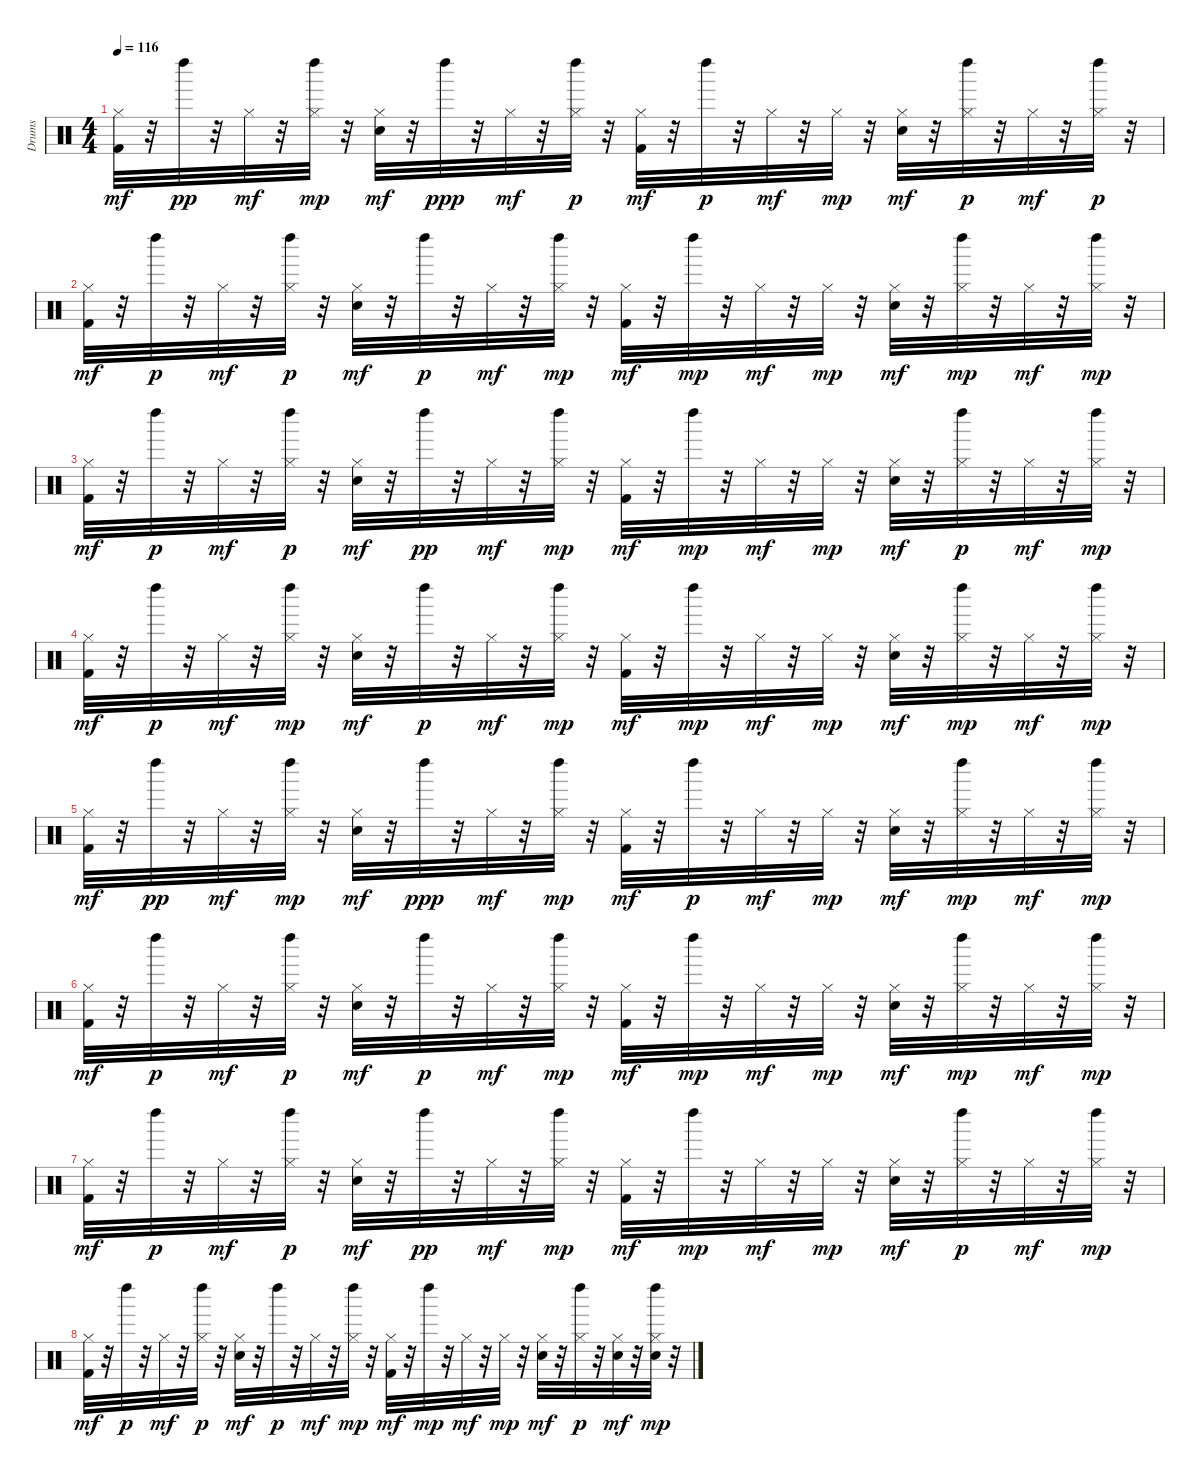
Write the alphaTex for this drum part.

\track ("Drums" "Drums") {instrument percussion}
\staff {score}
\articulation defaults
\ts (4 4)
\tempo 116
\clef neutral
\ks c
("Hi-Hat (closed)" "Kick (hit) 2").32{dy mf} r.32 "Left Maraca (hit)".32{dy pp} r.32 "Hi-Hat (closed)".32{dy mf} r.32 ("Left Maraca (hit)" "Hi-Hat (closed)").32{dy mp} r.32 ("Hi-Hat (closed)" "Snare (hit) 2").32{dy mf} r.32 "Left Maraca (hit)".32{dy ppp} r.32 "Hi-Hat (closed)".32{dy mf} r.32 ("Hi-Hat (closed)" "Left Maraca (hit)").32{dy p} r.32 ("Kick (hit) 2" "Hi-Hat (closed)").32{dy mf} r.32 "Left Maraca (hit)".32{dy p} r.32 "Hi-Hat (closed)".32{dy mf} r.32 "Hi-Hat (closed)".32{dy mp} r.32 ("Snare (hit) 2" "Hi-Hat (closed)").32{dy mf} r.32 ("Hi-Hat (closed)" "Left Maraca (hit)").32{dy p} r.32 "Hi-Hat (closed)".32{dy mf} r.32 ("Hi-Hat (closed)" "Left Maraca (hit)").32{dy p} r.32 |
("Hi-Hat (closed)" "Kick (hit) 2").32{dy mf} r.32 "Left Maraca (hit)".32{dy p} r.32 "Hi-Hat (closed)".32{dy mf} r.32 ("Hi-Hat (closed)" "Left Maraca (hit)").32{dy p} r.32 ("Hi-Hat (closed)" "Snare (hit) 2").32{dy mf} r.32 "Left Maraca (hit)".32{dy p} r.32 "Hi-Hat (closed)".32{dy mf} r.32 ("Left Maraca (hit)" "Hi-Hat (closed)").32{dy mp} r.32 ("Hi-Hat (closed)" "Kick (hit) 2").32{dy mf} r.32 "Left Maraca (hit)".32{dy mp} r.32 "Hi-Hat (closed)".32{dy mf} r.32 "Hi-Hat (closed)".32{dy mp} r.32 ("Hi-Hat (closed)" "Snare (hit) 2").32{dy mf} r.32 ("Left Maraca (hit)" "Hi-Hat (closed)").32{dy mp} r.32 "Hi-Hat (closed)".32{dy mf} r.32 ("Hi-Hat (closed)" "Left Maraca (hit)").32{dy mp} r.32 |
("Kick (hit) 2" "Hi-Hat (closed)").32{dy mf} r.32 "Left Maraca (hit)".32{dy p} r.32 "Hi-Hat (closed)".32{dy mf} r.32 ("Hi-Hat (closed)" "Left Maraca (hit)").32{dy p} r.32 ("Snare (hit) 2" "Hi-Hat (closed)").32{dy mf} r.32 "Left Maraca (hit)".32{dy pp} r.32 "Hi-Hat (closed)".32{dy mf} r.32 ("Left Maraca (hit)" "Hi-Hat (closed)").32{dy mp} r.32 ("Hi-Hat (closed)" "Kick (hit) 2").32{dy mf} r.32 "Left Maraca (hit)".32{dy mp} r.32 "Hi-Hat (closed)".32{dy mf} r.32 "Hi-Hat (closed)".32{dy mp} r.32 ("Hi-Hat (closed)" "Snare (hit) 2").32{dy mf} r.32 ("Hi-Hat (closed)" "Left Maraca (hit)").32{dy p} r.32 "Hi-Hat (closed)".32{dy mf} r.32 ("Left Maraca (hit)" "Hi-Hat (closed)").32{dy mp} r.32 |
("Hi-Hat (closed)" "Kick (hit) 2").32{dy mf} r.32 "Left Maraca (hit)".32{dy p} r.32 "Hi-Hat (closed)".32{dy mf} r.32 ("Left Maraca (hit)" "Hi-Hat (closed)").32{dy mp} r.32 ("Hi-Hat (closed)" "Snare (hit) 2").32{dy mf} r.32 "Left Maraca (hit)".32{dy p} r.32 "Hi-Hat (closed)".32{dy mf} r.32 ("Left Maraca (hit)" "Hi-Hat (closed)").32{dy mp} r.32 ("Hi-Hat (closed)" "Kick (hit) 2").32{dy mf} r.32 "Left Maraca (hit)".32{dy mp} r.32 "Hi-Hat (closed)".32{dy mf} r.32 "Hi-Hat (closed)".32{dy mp} r.32 ("Hi-Hat (closed)" "Snare (hit) 2").32{dy mf} r.32 ("Left Maraca (hit)" "Hi-Hat (closed)").32{dy mp} r.32 "Hi-Hat (closed)".32{dy mf} r.32 ("Hi-Hat (closed)" "Left Maraca (hit)").32{dy mp} r.32 |
("Kick (hit) 2" "Hi-Hat (closed)").32{dy mf} r.32 "Left Maraca (hit)".32{dy pp} r.32 "Hi-Hat (closed)".32{dy mf} r.32 ("Left Maraca (hit)" "Hi-Hat (closed)").32{dy mp} r.32 ("Hi-Hat (closed)" "Snare (hit) 2").32{dy mf} r.32 "Left Maraca (hit)".32{dy ppp} r.32 "Hi-Hat (closed)".32{dy mf} r.32 ("Left Maraca (hit)" "Hi-Hat (closed)").32{dy mp} r.32 ("Hi-Hat (closed)" "Kick (hit) 2").32{dy mf} r.32 "Left Maraca (hit)".32{dy p} r.32 "Hi-Hat (closed)".32{dy mf} r.32 "Hi-Hat (closed)".32{dy mp} r.32 ("Hi-Hat (closed)" "Snare (hit) 2").32{dy mf} r.32 ("Left Maraca (hit)" "Hi-Hat (closed)").32{dy mp} r.32 "Hi-Hat (closed)".32{dy mf} r.32 ("Left Maraca (hit)" "Hi-Hat (closed)").32{dy mp} r.32 |
("Kick (hit) 2" "Hi-Hat (closed)").32{dy mf} r.32 "Left Maraca (hit)".32{dy p} r.32 "Hi-Hat (closed)".32{dy mf} r.32 ("Hi-Hat (closed)" "Left Maraca (hit)").32{dy p} r.32 ("Snare (hit) 2" "Hi-Hat (closed)").32{dy mf} r.32 "Left Maraca (hit)".32{dy p} r.32 "Hi-Hat (closed)".32{dy mf} r.32 ("Left Maraca (hit)" "Hi-Hat (closed)").32{dy mp} r.32 ("Kick (hit) 2" "Hi-Hat (closed)").32{dy mf} r.32 "Left Maraca (hit)".32{dy mp} r.32 "Hi-Hat (closed)".32{dy mf} r.32 "Hi-Hat (closed)".32{dy mp} r.32 ("Hi-Hat (closed)" "Snare (hit) 2").32{dy mf} r.32 ("Left Maraca (hit)" "Hi-Hat (closed)").32{dy mp} r.32 "Hi-Hat (closed)".32{dy mf} r.32 ("Hi-Hat (closed)" "Left Maraca (hit)").32{dy mp} r.32 |
("Kick (hit) 2" "Hi-Hat (closed)").32{dy mf} r.32 "Left Maraca (hit)".32{dy p} r.32 "Hi-Hat (closed)".32{dy mf} r.32 ("Hi-Hat (closed)" "Left Maraca (hit)").32{dy p} r.32 ("Snare (hit) 2" "Hi-Hat (closed)").32{dy mf} r.32 "Left Maraca (hit)".32{dy pp} r.32 "Hi-Hat (closed)".32{dy mf} r.32 ("Hi-Hat (closed)" "Left Maraca (hit)").32{dy mp} r.32 ("Kick (hit) 2" "Hi-Hat (closed)").32{dy mf} r.32 "Left Maraca (hit)".32{dy mp} r.32 "Hi-Hat (closed)".32{dy mf} r.32 "Hi-Hat (closed)".32{dy mp} r.32 ("Snare (hit) 2" "Hi-Hat (closed)").32{dy mf} r.32 ("Hi-Hat (closed)" "Left Maraca (hit)").32{dy p} r.32 "Hi-Hat (closed)".32{dy mf} r.32 ("Left Maraca (hit)" "Hi-Hat (closed)").32{dy mp} r.32 |
("Kick (hit) 2" "Hi-Hat (closed)").32{dy mf} r.32 "Left Maraca (hit)".32{dy p} r.32 "Hi-Hat (closed)".32{dy mf} r.32 ("Hi-Hat (closed)" "Left Maraca (hit)").32{dy p} r.32 ("Snare (hit) 2" "Hi-Hat (closed)").32{dy mf} r.32 "Left Maraca (hit)".32{dy p} r.32 "Hi-Hat (closed)".32{dy mf} r.32 ("Left Maraca (hit)" "Hi-Hat (closed)").32{dy mp} r.32 ("Hi-Hat (closed)" "Kick (hit) 2").32{dy mf} r.32 "Left Maraca (hit)".32{dy mp} r.32 "Hi-Hat (closed)".32{dy mf} r.32 "Hi-Hat (closed)".32{dy mp} r.32 ("Hi-Hat (closed)" "Snare (hit) 2").32{dy mf} r.32 ("Hi-Hat (closed)" "Left Maraca (hit)").32{dy p} r.32 ("Snare (hit) 2" "Hi-Hat (closed)").32{dy mf} r.32 ("Snare (hit) 2" "Hi-Hat (closed)" "Left Maraca (hit)").32{dy mp} r.32
